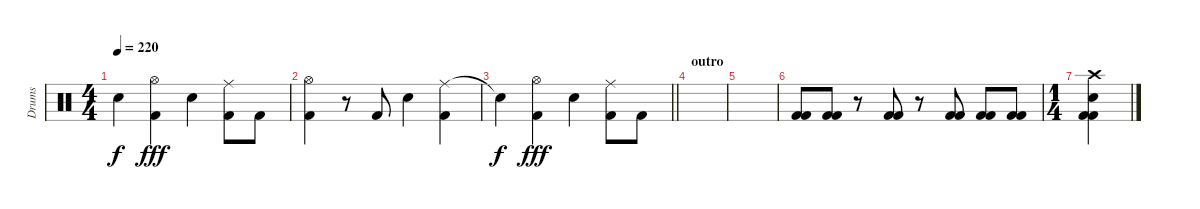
\track ("Drums" "Drums") {instrument percussion}
\staff {score}
\articulation defaults
\ts (4 4)
\tempo 220
\clef neutral
\ks c "Snare (hit)"{t}.4{dy f}
("Hi-Hat (open)" "Kick (hit) 2").4{dy fff} "Electric Snare (hit)".4 ("Ride (middle)" "Kick (hit) 2").8 "Kick (hit) 2".8 |
("Hi-Hat (open)" "Kick (hit) 2").4 r.8 "Kick (hit) 2".8 "Electric Snare (hit)".4 ("Ride (middle)" "Kick (hit) 2").4 |
\barLineRight lightlight "Snare (hit)"{t}.4{dy f}
("Hi-Hat (open)" "Kick (hit) 2").4{dy fff} "Electric Snare (hit)".4 ("Ride (middle)" "Kick (hit) 2").8 "Kick (hit) 2".8 |
\section ("" "outro")
|
|
("Kick (hit) 2" "Kick (hit) 2").8 ("Kick (hit) 2" "Kick (hit) 2").8 r.8 ("Kick (hit) 2" "Kick (hit) 2").8 r.8 ("Kick (hit) 2" "Kick (hit) 2").8 ("Kick (hit) 2" "Kick (hit) 2").8 ("Kick (hit) 2" "Kick (hit) 2").8 |
\ts (1 4)
("Crash high (hit)" "Electric Snare (hit)" "Kick (hit) 2" "Kick (hit) 2").4
